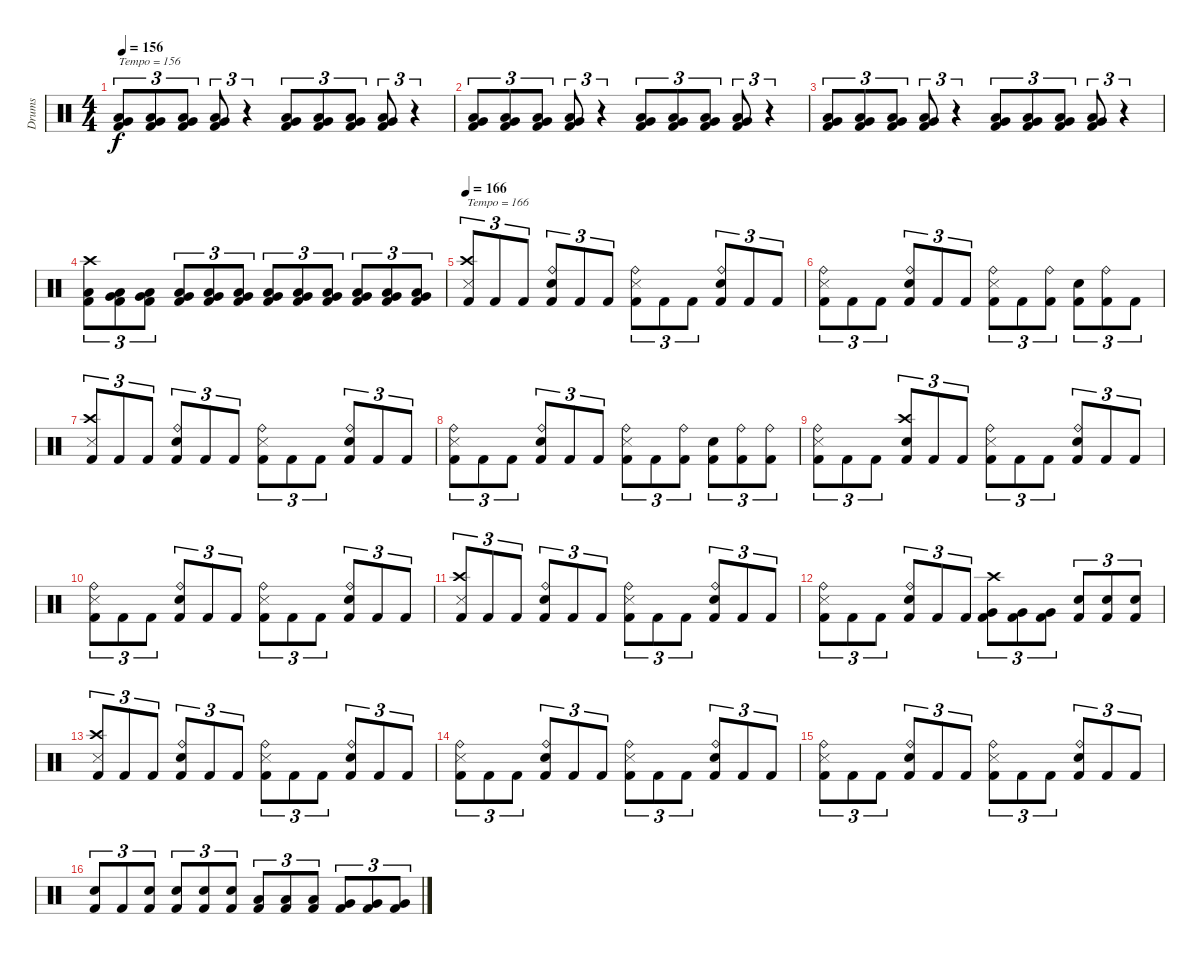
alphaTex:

\track ("Drums" "Drums") {instrument percussion}
\staff {score}
\articulation defaults
\ts (4 4)
\tempo 156
\clef neutral
\ks c
("Very Low Tom (hit)" "Low Floor Tom (hit)" "Kick (hit) 2").8{tu (3 2) txt "Tempo = 156" dy f} ("Very Low Tom (hit)" "Low Floor Tom (hit)" "Kick (hit) 2").8{tu (3 2)} ("Very Low Tom (hit)" "Low Floor Tom (hit)" "Kick (hit) 2").8{tu (3 2)} ("Very Low Tom (hit)" "Low Floor Tom (hit)" "Kick (hit) 2").8{tu (3 2)} r.4{tu (3 2)} ("Very Low Tom (hit)" "Low Floor Tom (hit)" "Kick (hit) 2").8{tu (3 2)} ("Very Low Tom (hit)" "Low Floor Tom (hit)" "Kick (hit) 2").8{tu (3 2)} ("Very Low Tom (hit)" "Low Floor Tom (hit)" "Kick (hit) 2").8{tu (3 2)} ("Very Low Tom (hit)" "Low Floor Tom (hit)" "Kick (hit) 2").8{tu (3 2)} r.4{tu (3 2)} |
("Very Low Tom (hit)" "Low Floor Tom (hit)" "Kick (hit) 2").8{tu (3 2)} ("Very Low Tom (hit)" "Low Floor Tom (hit)" "Kick (hit) 2").8{tu (3 2)} ("Very Low Tom (hit)" "Low Floor Tom (hit)" "Kick (hit) 2").8{tu (3 2)} ("Very Low Tom (hit)" "Low Floor Tom (hit)" "Kick (hit) 2").8{tu (3 2)} r.4{tu (3 2)} ("Very Low Tom (hit)" "Low Floor Tom (hit)" "Kick (hit) 2").8{tu (3 2)} ("Very Low Tom (hit)" "Low Floor Tom (hit)" "Kick (hit) 2").8{tu (3 2)} ("Very Low Tom (hit)" "Low Floor Tom (hit)" "Kick (hit) 2").8{tu (3 2)} ("Very Low Tom (hit)" "Low Floor Tom (hit)" "Kick (hit) 2").8{tu (3 2)} r.4{tu (3 2)} |
("Very Low Tom (hit)" "Low Floor Tom (hit)" "Kick (hit) 2").8{tu (3 2)} ("Very Low Tom (hit)" "Low Floor Tom (hit)" "Kick (hit) 2").8{tu (3 2)} ("Very Low Tom (hit)" "Low Floor Tom (hit)" "Kick (hit) 2").8{tu (3 2)} ("Very Low Tom (hit)" "Low Floor Tom (hit)" "Kick (hit) 2").8{tu (3 2)} r.4{tu (3 2)} ("Very Low Tom (hit)" "Low Floor Tom (hit)" "Kick (hit) 2").8{tu (3 2)} ("Very Low Tom (hit)" "Low Floor Tom (hit)" "Kick (hit) 2").8{tu (3 2)} ("Very Low Tom (hit)" "Low Floor Tom (hit)" "Kick (hit) 2").8{tu (3 2)} ("Very Low Tom (hit)" "Low Floor Tom (hit)" "Kick (hit) 2").8{tu (3 2)} r.4{tu (3 2)} |
("Crash high (hit)" "Low Floor Tom (hit)" "Kick (hit) 2").8{tu (3 2)} ("Very Low Tom (hit)" "Low Floor Tom (hit)" "Kick (hit) 2").8{tu (3 2)} ("Very Low Tom (hit)" "Low Floor Tom (hit)" "Kick (hit) 2").8{tu (3 2)} ("Very Low Tom (hit)" "Low Floor Tom (hit)" "Kick (hit) 2").8{tu (3 2)} ("Very Low Tom (hit)" "Low Floor Tom (hit)" "Kick (hit) 2").8{tu (3 2)} ("Very Low Tom (hit)" "Low Floor Tom (hit)" "Kick (hit) 2").8{tu (3 2)} ("Very Low Tom (hit)" "Low Floor Tom (hit)" "Kick (hit) 2").8{tu (3 2)} ("Very Low Tom (hit)" "Low Floor Tom (hit)" "Kick (hit) 2").8{tu (3 2)} ("Very Low Tom (hit)" "Low Floor Tom (hit)" "Kick (hit) 2").8{tu (3 2)} ("Very Low Tom (hit)" "Low Floor Tom (hit)" "Kick (hit) 2").8{tu (3 2)} ("Very Low Tom (hit)" "Low Floor Tom (hit)" "Kick (hit) 2").8{tu (3 2)} ("Very Low Tom (hit)" "Low Floor Tom (hit)" "Kick (hit) 2").8{tu (3 2)} |
\tempo 166
("Crash high (hit)" "Snare (side stick) 3" "Kick (hit) 2").8{tu (3 2) txt "Tempo = 166"} "Kick (hit) 2".8{tu (3 2)} "Kick (hit) 2".8{tu (3 2)} ("Ride (bell)" "Electric Snare (hit)" "Kick (hit) 2").8{tu (3 2)} "Kick (hit) 2".8{tu (3 2)} "Kick (hit) 2".8{tu (3 2)} ("Ride (bell)" "Snare (side stick) 3" "Kick (hit) 2").8{tu (3 2)} "Kick (hit) 2".8{tu (3 2)} "Kick (hit) 2".8{tu (3 2)} ("Ride (bell)" "Electric Snare (hit)" "Kick (hit) 2").8{tu (3 2)} "Kick (hit) 2".8{tu (3 2)} "Kick (hit) 2".8{tu (3 2)} |
("Ride (bell)" "Snare (side stick) 3" "Kick (hit) 2").8{tu (3 2)} "Kick (hit) 2".8{tu (3 2)} "Kick (hit) 2".8{tu (3 2)} ("Ride (bell)" "Electric Snare (hit)" "Kick (hit) 2").8{tu (3 2)} "Kick (hit) 2".8{tu (3 2)} "Kick (hit) 2".8{tu (3 2)} ("Ride (bell)" "Snare (side stick) 3" "Kick (hit) 2").8{tu (3 2)} "Kick (hit) 2".8{tu (3 2)} ("Ride (bell)" "Kick (hit) 2").8{tu (3 2)} ("Electric Snare (hit)" "Kick (hit) 2").8{tu (3 2)} ("Ride (bell)" "Kick (hit) 2").8{tu (3 2)} "Kick (hit) 2".8{tu (3 2)} |
("Crash high (hit)" "Snare (side stick) 3" "Kick (hit) 2").8{tu (3 2)} "Kick (hit) 2".8{tu (3 2)} "Kick (hit) 2".8{tu (3 2)} ("Ride (bell)" "Electric Snare (hit)" "Kick (hit) 2").8{tu (3 2)} "Kick (hit) 2".8{tu (3 2)} "Kick (hit) 2".8{tu (3 2)} ("Ride (bell)" "Snare (side stick) 3" "Kick (hit) 2").8{tu (3 2)} "Kick (hit) 2".8{tu (3 2)} "Kick (hit) 2".8{tu (3 2)} ("Ride (bell)" "Electric Snare (hit)" "Kick (hit) 2").8{tu (3 2)} "Kick (hit) 2".8{tu (3 2)} "Kick (hit) 2".8{tu (3 2)} |
("Ride (bell)" "Snare (side stick) 3" "Kick (hit) 2").8{tu (3 2)} "Kick (hit) 2".8{tu (3 2)} "Kick (hit) 2".8{tu (3 2)} ("Ride (bell)" "Electric Snare (hit)" "Kick (hit) 2").8{tu (3 2)} "Kick (hit) 2".8{tu (3 2)} "Kick (hit) 2".8{tu (3 2)} ("Ride (bell)" "Snare (side stick) 3" "Kick (hit) 2").8{tu (3 2)} "Kick (hit) 2".8{tu (3 2)} ("Ride (bell)" "Kick (hit) 2").8{tu (3 2)} ("Electric Snare (hit)" "Kick (hit) 2").8{tu (3 2)} ("Ride (bell)" "Kick (hit) 2").8{tu (3 2)} ("Ride (bell)" "Kick (hit) 2").8{tu (3 2)} |
("Ride (bell)" "Snare (side stick) 3" "Kick (hit) 2").8{tu (3 2)} "Kick (hit) 2".8{tu (3 2)} "Kick (hit) 2".8{tu (3 2)} ("Crash high (hit)" "Electric Snare (hit)" "Kick (hit) 2").8{tu (3 2)} "Kick (hit) 2".8{tu (3 2)} "Kick (hit) 2".8{tu (3 2)} ("Ride (bell)" "Snare (side stick) 3" "Kick (hit) 2").8{tu (3 2)} "Kick (hit) 2".8{tu (3 2)} "Kick (hit) 2".8{tu (3 2)} ("Ride (bell)" "Electric Snare (hit)" "Kick (hit) 2").8{tu (3 2)} "Kick (hit) 2".8{tu (3 2)} "Kick (hit) 2".8{tu (3 2)} |
("Ride (bell)" "Snare (side stick) 3" "Kick (hit) 2").8{tu (3 2)} "Kick (hit) 2".8{tu (3 2)} "Kick (hit) 2".8{tu (3 2)} ("Ride (bell)" "Electric Snare (hit)" "Kick (hit) 2").8{tu (3 2)} "Kick (hit) 2".8{tu (3 2)} "Kick (hit) 2".8{tu (3 2)} ("Ride (bell)" "Snare (side stick) 3" "Kick (hit) 2").8{tu (3 2)} "Kick (hit) 2".8{tu (3 2)} "Kick (hit) 2".8{tu (3 2)} ("Ride (bell)" "Electric Snare (hit)" "Kick (hit) 2").8{tu (3 2)} "Kick (hit) 2".8{tu (3 2)} "Kick (hit) 2".8{tu (3 2)} |
("Crash high (hit)" "Snare (side stick) 3" "Kick (hit) 2").8{tu (3 2)} "Kick (hit) 2".8{tu (3 2)} "Kick (hit) 2".8{tu (3 2)} ("Ride (bell)" "Electric Snare (hit)" "Kick (hit) 2").8{tu (3 2)} "Kick (hit) 2".8{tu (3 2)} "Kick (hit) 2".8{tu (3 2)} ("Ride (bell)" "Snare (side stick) 3" "Kick (hit) 2").8{tu (3 2)} "Kick (hit) 2".8{tu (3 2)} "Kick (hit) 2".8{tu (3 2)} ("Ride (bell)" "Electric Snare (hit)" "Kick (hit) 2").8{tu (3 2)} "Kick (hit) 2".8{tu (3 2)} "Kick (hit) 2".8{tu (3 2)} |
("Ride (bell)" "Snare (side stick) 3" "Kick (hit) 2").8{tu (3 2)} "Kick (hit) 2".8{tu (3 2)} "Kick (hit) 2".8{tu (3 2)} ("Ride (bell)" "Electric Snare (hit)" "Kick (hit) 2").8{tu (3 2)} "Kick (hit) 2".8{tu (3 2)} "Kick (hit) 2".8{tu (3 2)} ("Crash high (hit)" "Very Low Tom (hit)" "Kick (hit) 2").8{tu (3 2)} ("Very Low Tom (hit)" "Kick (hit) 2").8{tu (3 2)} ("Very Low Tom (hit)" "Kick (hit) 2").8{tu (3 2)} ("Electric Snare (hit)" "Kick (hit) 2").8{tu (3 2)} ("Electric Snare (hit)" "Kick (hit) 2").8{tu (3 2)} ("Electric Snare (hit)" "Kick (hit) 2").8{tu (3 2)} |
("Crash high (hit)" "Snare (side stick) 3" "Kick (hit) 2").8{tu (3 2)} "Kick (hit) 2".8{tu (3 2)} "Kick (hit) 2".8{tu (3 2)} ("Ride (bell)" "Electric Snare (hit)" "Kick (hit) 2").8{tu (3 2)} "Kick (hit) 2".8{tu (3 2)} "Kick (hit) 2".8{tu (3 2)} ("Ride (bell)" "Snare (side stick) 3" "Kick (hit) 2").8{tu (3 2)} "Kick (hit) 2".8{tu (3 2)} "Kick (hit) 2".8{tu (3 2)} ("Ride (bell)" "Electric Snare (hit)" "Kick (hit) 2").8{tu (3 2)} "Kick (hit) 2".8{tu (3 2)} "Kick (hit) 2".8{tu (3 2)} |
("Ride (bell)" "Snare (side stick) 3" "Kick (hit) 2").8{tu (3 2)} "Kick (hit) 2".8{tu (3 2)} "Kick (hit) 2".8{tu (3 2)} ("Ride (bell)" "Electric Snare (hit)" "Kick (hit) 2").8{tu (3 2)} "Kick (hit) 2".8{tu (3 2)} "Kick (hit) 2".8{tu (3 2)} ("Ride (bell)" "Snare (side stick) 3" "Kick (hit) 2").8{tu (3 2)} "Kick (hit) 2".8{tu (3 2)} "Kick (hit) 2".8{tu (3 2)} ("Ride (bell)" "Electric Snare (hit)" "Kick (hit) 2").8{tu (3 2)} "Kick (hit) 2".8{tu (3 2)} "Kick (hit) 2".8{tu (3 2)} |
("Ride (bell)" "Snare (side stick) 3" "Kick (hit) 2").8{tu (3 2)} "Kick (hit) 2".8{tu (3 2)} "Kick (hit) 2".8{tu (3 2)} ("Ride (bell)" "Electric Snare (hit)" "Kick (hit) 2").8{tu (3 2)} "Kick (hit) 2".8{tu (3 2)} "Kick (hit) 2".8{tu (3 2)} ("Ride (bell)" "Snare (side stick) 3" "Kick (hit) 2").8{tu (3 2)} "Kick (hit) 2".8{tu (3 2)} "Kick (hit) 2".8{tu (3 2)} ("Ride (bell)" "Electric Snare (hit)" "Kick (hit) 2").8{tu (3 2)} "Kick (hit) 2".8{tu (3 2)} "Kick (hit) 2".8{tu (3 2)} |
("Electric Snare (hit)" "Kick (hit) 2").8{tu (3 2)} "Kick (hit) 2".8{tu (3 2)} ("Electric Snare (hit)" "Kick (hit) 2").8{tu (3 2)} ("Electric Snare (hit)" "Kick (hit) 2").8{tu (3 2)} ("Electric Snare (hit)" "Kick (hit) 2").8{tu (3 2)} ("Electric Snare (hit)" "Kick (hit) 2").8{tu (3 2)} ("Low Floor Tom (hit)" "Kick (hit) 2").8{tu (3 2)} ("Low Floor Tom (hit)" "Kick (hit) 2").8{tu (3 2)} ("Low Floor Tom (hit)" "Kick (hit) 2").8{tu (3 2)} ("Very Low Tom (hit)" "Kick (hit) 2").8{tu (3 2)} ("Very Low Tom (hit)" "Kick (hit) 2").8{tu (3 2)} ("Very Low Tom (hit)" "Kick (hit) 2").8{tu (3 2)}
